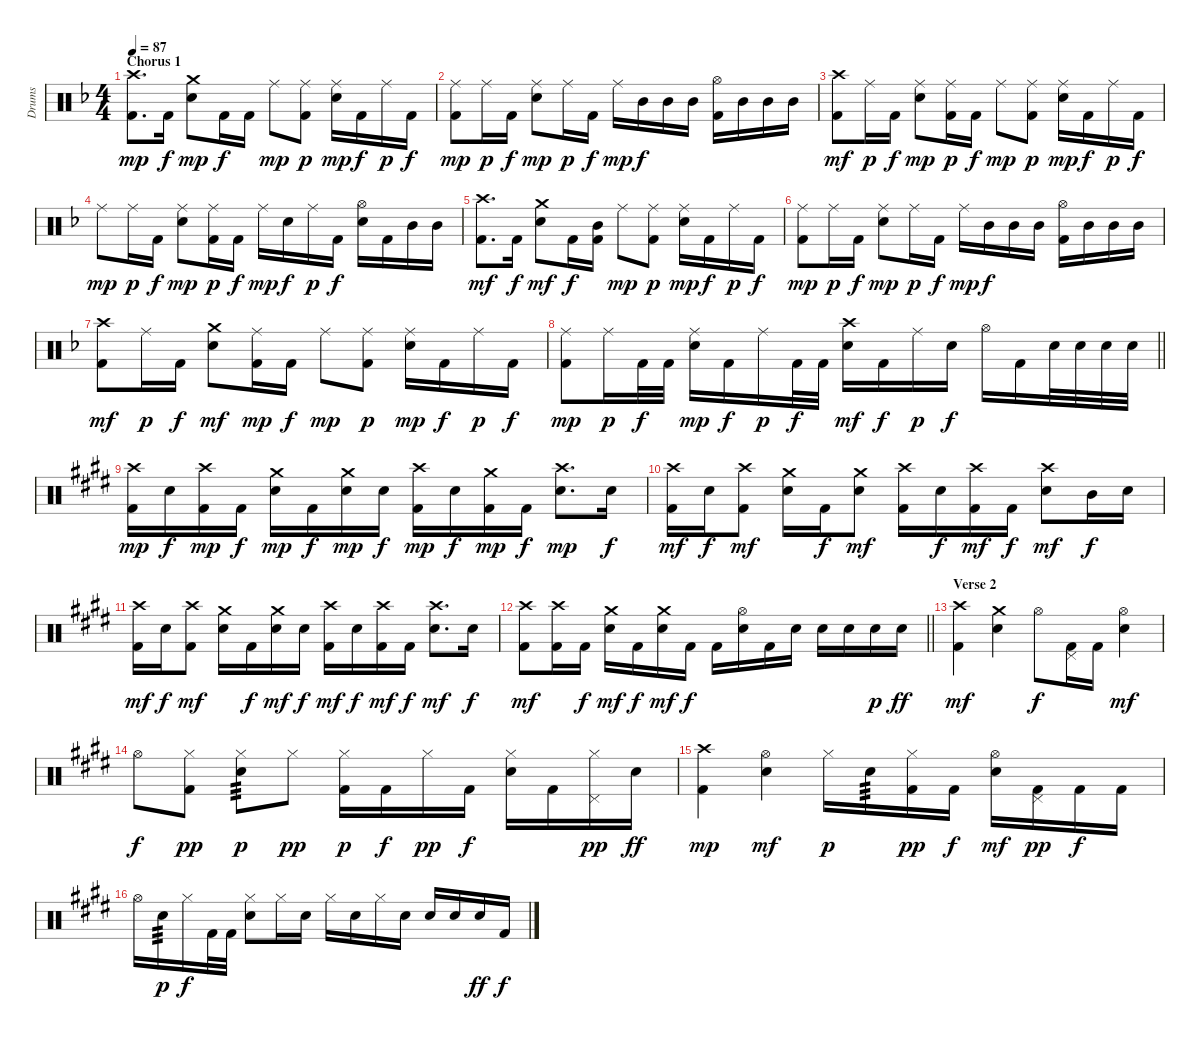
\track ("Drums" "Drums") {instrument percussion}
\staff {score}
\articulation defaults
\ts (4 4)
\section ("" "Chorus 1")
\tempo 87
\clef neutral
\ks dminor
("Crash high (hit)" "Kick (hit) 2").8{d dy mp} "Kick (hit) 2".16{dy f} ("Crash medium (hit)" "Electric Snare (hit)").8{dy mp} "Kick (hit) 2".16{dy f} "Kick (hit) 2".16 "Ride (middle)".8{dy mp} ("Ride (middle)" "Kick (hit) 2").8{dy p} ("Ride (middle)" "Electric Snare (hit)").16{dy mp} "Kick (hit) 2".16{dy f} "Ride (middle)".16{dy p} "Kick (hit) 2".16{dy f} |
("Ride (middle)" "Kick (hit) 2").8{dy mp} "Ride (middle)".16{dy p} "Kick (hit) 2".16{dy f} ("Electric Snare (hit)" "Ride (middle)").8{dy mp} "Ride (middle)".16{dy p} "Kick (hit) 2".16{dy f} "Ride (middle)".16{dy mp} "Mid Tom (hit)".16{dy f} "Mid Tom (hit)".16 "Mid Tom (hit)".16 ("Hi-Hat (open)" "Kick (hit) 2").16 "Mid Tom (hit)".16 "Mid Tom (hit)".16 "Mid Tom (hit)".16 |
("Crash high (hit)" "Kick (hit) 2").8{dy mf} "Ride (middle)".16{dy p} "Kick (hit) 2".16{dy f} ("Electric Snare (hit)" "Ride (middle)").8{dy mp} ("Kick (hit) 2" "Ride (middle)").16{dy p} "Kick (hit) 2".16{dy f} "Ride (middle)".8{dy mp} ("Ride (middle)" "Kick (hit) 2").8{dy p} ("Electric Snare (hit)" "Ride (middle)").16{dy mp} "Kick (hit) 2".16{dy f} "Ride (middle)".16{dy p} "Kick (hit) 2".16{dy f} |
"Ride (middle)".8{dy mp} "Ride (middle)".16{dy p} "Kick (hit) 2".16{dy f} ("Electric Snare (hit)" "Ride (middle)").8{dy mp} ("Kick (hit) 2" "Ride (middle)").16{dy p} "Kick (hit) 2".16{dy f} "Ride (middle)".16{dy mp} "Electric Snare (hit)".16{dy f} "Ride (middle)".16{dy p} "Kick (hit) 2".16{dy f} ("Electric Snare (hit)" "Hi-Hat (open)").16 "Kick (hit) 2".16 "Mid Tom (hit)".16 "Mid Tom (hit)".16 |
("Crash high (hit)" "Kick (hit) 2").8{d dy mf} "Kick (hit) 2".16{dy f} ("Crash medium (hit)" "Electric Snare (hit)").8{dy mf} "Kick (hit) 2".16{dy f} ("Kick (hit) 2" "Mid Tom (hit)").16 "Ride (middle)".8{dy mp} ("Ride (middle)" "Kick (hit) 2").8{dy p} ("Ride (middle)" "Electric Snare (hit)").16{dy mp} "Kick (hit) 2".16{dy f} "Ride (middle)".16{dy p} "Kick (hit) 2".16{dy f} |
("Ride (middle)" "Kick (hit) 2").8{dy mp} "Ride (middle)".16{dy p} "Kick (hit) 2".16{dy f} ("Electric Snare (hit)" "Ride (middle)").8{dy mp} "Ride (middle)".16{dy p} "Kick (hit) 2".16{dy f} "Ride (middle)".16{dy mp} "Mid Tom (hit)".16{dy f} "Mid Tom (hit)".16 "Mid Tom (hit)".16 ("Hi-Hat (open)" "Kick (hit) 2").16 "Mid Tom (hit)".16 "Mid Tom (hit)".16 "Mid Tom (hit)".16 |
("Crash high (hit)" "Kick (hit) 2").8{dy mf} "Ride (middle)".16{dy p} "Kick (hit) 2".16{dy f} ("Electric Snare (hit)" "Crash medium (hit)").8{dy mf} ("Kick (hit) 2" "Ride (middle)").16{dy mp} "Kick (hit) 2".16{dy f} "Ride (middle)".8{dy mp} ("Ride (middle)" "Kick (hit) 2").8{dy p} ("Electric Snare (hit)" "Ride (middle)").16{dy mp} "Kick (hit) 2".16{dy f} "Ride (middle)".16{dy p} "Kick (hit) 2".16{dy f} |
\barLineRight lightlight
("Ride (middle)" "Kick (hit) 2").8{dy mp} "Ride (middle)".16{dy p} "Kick (hit) 2".32{dy f} "Kick (hit) 2".32 ("Electric Snare (hit)" "Ride (middle)").16{dy mp} "Kick (hit) 2".16{dy f} "Ride (middle)".16{dy p} "Kick (hit) 2".32{dy f} "Kick (hit) 2".32 ("Crash high (hit)" "Electric Snare (hit)").16{dy mf} "Kick (hit) 2".16{dy f} "Ride (middle)".16{dy p} "Electric Snare (hit)".16{dy f} "Hi-Hat (open)".16 "Kick (hit) 2".16 "Electric Snare (hit)".32 "Electric Snare (hit)".32 "Electric Snare (hit)".32 "Electric Snare (hit)".32 |
\ks c#minor
("Crash high (hit)" "Kick (hit) 2").16{dy mp} "Electric Snare (hit)".16{dy f} ("Kick (hit) 2" "Crash high (hit)").16{dy mp} "Kick (hit) 2".16{dy f} ("Electric Snare (hit)" "Crash medium (hit)").16{dy mp} "Kick (hit) 2".16{dy f} ("Crash medium (hit)" "Electric Snare (hit)").16{dy mp} "Electric Snare (hit)".16{dy f} ("Kick (hit) 2" "Crash high (hit)").16{dy mp} "Electric Snare (hit)".16{dy f} ("Kick (hit) 2" "Crash medium (hit)").16{dy mp} "Kick (hit) 2".16{dy f} ("Electric Snare (hit)" "Crash high (hit)").8{d dy mp} "Electric Snare (hit)".16{dy f} |
("Crash high (hit)" "Kick (hit) 2").16{dy mf} "Electric Snare (hit)".16{dy f} ("Kick (hit) 2" "Crash high (hit)").8{dy mf} ("Electric Snare (hit)" "Crash medium (hit)").16 "Kick (hit) 2".16{dy f} ("Electric Snare (hit)" "Crash medium (hit)").8{dy mf} ("Crash high (hit)" "Kick (hit) 2").16 "Electric Snare (hit)".16{dy f} ("Kick (hit) 2" "Crash high (hit)").16{dy mf} "Kick (hit) 2".16{dy f} ("Electric Snare (hit)" "Crash high (hit)").8{dy mf} "Mid Tom (hit)".16{dy f} "Electric Snare (hit)".16 |
("Kick (hit) 2" "Crash high (hit)").16{dy mf} "Electric Snare (hit)".16{dy f} ("Kick (hit) 2" "Crash high (hit)").8{dy mf} ("Crash medium (hit)" "Electric Snare (hit)").16 "Kick (hit) 2".16{dy f} ("Electric Snare (hit)" "Crash medium (hit)").16{dy mf} "Electric Snare (hit)".16{dy f} ("Crash high (hit)" "Kick (hit) 2").16{dy mf} "Electric Snare (hit)".16{dy f} ("Kick (hit) 2" "Crash high (hit)").16{dy mf} "Kick (hit) 2".16{dy f} ("Crash high (hit)" "Electric Snare (hit)").8{d dy mf} "Electric Snare (hit)".16{dy f} |
\barLineRight lightlight
("Crash high (hit)" "Kick (hit) 2").8{dy mf} ("Crash high (hit)" "Kick (hit) 2").16 "Kick (hit) 2".16{dy f} ("Electric Snare (hit)" "Crash medium (hit)").16{dy mf} "Kick (hit) 2".16{dy f} ("Electric Snare (hit)" "Crash medium (hit)").16{dy mf} "Kick (hit) 2".16{dy f} "Kick (hit) 2".16 ("Electric Snare (hit)" "Hi-Hat (open)").16 "Kick (hit) 2".16 "Electric Snare (hit)".16 "Electric Snare (hit)".16 "Electric Snare (hit)".16 "Electric Snare (hit)".16{dy p} "Electric Snare (hit)".16{dy ff} |
\section ("" "Verse 2")
("Kick (hit) 2" "Crash high (hit)").4{dy mf} ("Electric Snare (hit)" "Crash medium (hit)").4 "Hi-Hat (open)".8{dy f} ("Kick (hit) 2" "Pedal Hi-Hat (hit)").16 "Kick (hit) 2".16 ("Electric Snare (hit)" "Hi-Hat (open)").4{dy mf} |
"Hi-Hat (open)".8{dy f} ("Hi-Hat (closed)" "Kick (hit) 2").8{dy pp} ("Hi-Hat (closed)" "Electric Snare (hit)").8{tp 3 dy p} "Hi-Hat (closed)".8{dy pp} ("Hi-Hat (closed)" "Kick (hit) 2").16{dy p} "Kick (hit) 2".16{dy f} "Hi-Hat (closed)".16{dy pp} "Kick (hit) 2".16{dy f} ("Hi-Hat (closed)" "Electric Snare (hit)").16 "Kick (hit) 2".16 ("Pedal Hi-Hat (hit)" "Hi-Hat (closed)").16{dy pp} "Electric Snare (hit)".16{dy ff} |
("Kick (hit) 2" "Crash high (hit)").4{dy mp} ("Electric Snare (hit)" "Hi-Hat (open)").4{dy mf} "Hi-Hat (closed)".16{dy p} "Electric Snare (hit)".16{tp 3} ("Kick (hit) 2" "Hi-Hat (closed)").16{dy pp} "Kick (hit) 2".16{dy f} ("Electric Snare (hit)" "Hi-Hat (open)").16{dy mf} ("Pedal Hi-Hat (hit)" "Kick (hit) 2").16{dy pp} "Kick (hit) 2".16{dy f} "Kick (hit) 2".16 |
"Hi-Hat (open)".16 "Electric Snare (hit)".16{tp 3 dy p} "Hi-Hat (closed)".16{dy f} "Kick (hit) 2".32 "Kick (hit) 2".32 ("Hi-Hat (closed)" "Electric Snare (hit)").8 "Hi-Hat (closed)".16 "Electric Snare (hit)".16 "Hi-Hat (closed)".16 "Electric Snare (hit)".16 "Hi-Hat (closed)".16 "Electric Snare (hit)".16 "Electric Snare (hit)".16 "Electric Snare (hit)".16 "Electric Snare (hit)".16{dy ff} "Kick (hit) 2".16{dy f}
